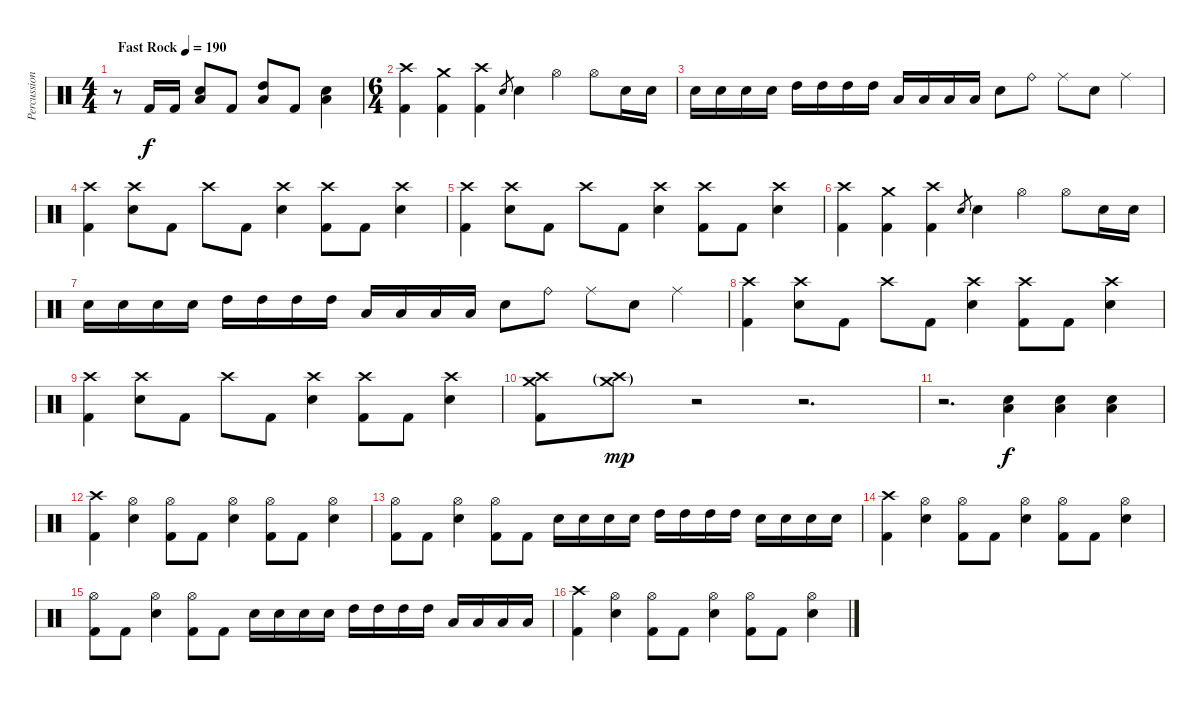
\track ("Percussion" "Percussion") {instrument percussion}
\staff {score}
\articulation defaults
\ts (4 4)
\tempo (190 "Fast Rock")
\clef neutral
\ks c
r.8{dy f} "Kick (hit) 2".16 "Kick (hit) 2".16 ("Low Tom (hit)" "Electric Snare (hit)").8 "Kick (hit) 2".8 ("High Tom (hit)" "Low Tom (hit)").8 "Kick (hit) 2".8 ("Low Tom (hit)" "Electric Snare (hit)").4 |
\ts (6 4)
("Crash high (hit)" "Kick (hit) 2").4 ("Crash medium (hit)" "Kick (hit) 2").4 ("Crash high (hit)" "Kick (hit) 2").4 "Electric Snare (hit)".8{gr} "Electric Snare (hit)".4 "Hi-Hat (open)".4 "Hi-Hat (open)".8 "Electric Snare (hit)".16 "Electric Snare (hit)".16 |
"Electric Snare (hit)".16 "Electric Snare (hit)".16 "Electric Snare (hit)".16 "Electric Snare (hit)".16 "High Tom (hit)".16 "High Tom (hit)".16 "High Tom (hit)".16 "High Tom (hit)".16 "Low Tom (hit)".16 "Low Tom (hit)".16 "Low Tom (hit)".16 "Low Tom (hit)".16 "Electric Snare (hit)".8 "Ride (bell)".8 "Ride (middle)".8 "Electric Snare (hit)".8 "Ride (middle)".4 |
("Crash high (hit)" "Kick (hit) 2").4 ("Crash high (hit)" "Electric Snare (hit)").8 "Kick (hit) 2".8 "Crash high (hit)".8 "Kick (hit) 2".8 ("Crash high (hit)" "Electric Snare (hit)").4 ("Crash high (hit)" "Kick (hit) 2").8 "Kick (hit) 2".8 ("Crash high (hit)" "Electric Snare (hit)").4 |
("Crash high (hit)" "Kick (hit) 2").4 ("Crash high (hit)" "Electric Snare (hit)").8 "Kick (hit) 2".8 "Crash high (hit)".8 "Kick (hit) 2".8 ("Crash high (hit)" "Electric Snare (hit)").4 ("Crash high (hit)" "Kick (hit) 2").8 "Kick (hit) 2".8 ("Crash high (hit)" "Electric Snare (hit)").4 |
("Crash high (hit)" "Kick (hit) 2").4 ("Crash medium (hit)" "Kick (hit) 2").4 ("Crash high (hit)" "Kick (hit) 2").4 "Electric Snare (hit)".8{gr} "Electric Snare (hit)".4 "Hi-Hat (open)".4 "Hi-Hat (open)".8 "Electric Snare (hit)".16 "Electric Snare (hit)".16 |
"Electric Snare (hit)".16 "Electric Snare (hit)".16 "Electric Snare (hit)".16 "Electric Snare (hit)".16 "High Tom (hit)".16 "High Tom (hit)".16 "High Tom (hit)".16 "High Tom (hit)".16 "Low Tom (hit)".16 "Low Tom (hit)".16 "Low Tom (hit)".16 "Low Tom (hit)".16 "Electric Snare (hit)".8 "Ride (bell)".8 "Ride (middle)".8 "Electric Snare (hit)".8 "Ride (middle)".4 |
("Crash high (hit)" "Kick (hit) 2").4 ("Crash high (hit)" "Electric Snare (hit)").8 "Kick (hit) 2".8 "Crash high (hit)".8 "Kick (hit) 2".8 ("Crash high (hit)" "Electric Snare (hit)").4 ("Crash high (hit)" "Kick (hit) 2").8 "Kick (hit) 2".8 ("Crash high (hit)" "Electric Snare (hit)").4 |
("Crash high (hit)" "Kick (hit) 2").4 ("Crash high (hit)" "Electric Snare (hit)").8 "Kick (hit) 2".8 "Crash high (hit)".8 "Kick (hit) 2".8 ("Crash high (hit)" "Electric Snare (hit)").4 ("Crash high (hit)" "Kick (hit) 2").8 "Kick (hit) 2".8 ("Crash high (hit)" "Electric Snare (hit)").4 |
("Crash medium (hit)" "Crash high (hit)" "Kick (hit) 2").8 ("Crash medium (hit)"{g} "Crash high (hit)"{g}).8{dy mp} r.2 r.2{d} |
r.2{d} ("Low Tom (hit)" "Electric Snare (hit)").4{dy f} ("Low Tom (hit)" "Electric Snare (hit)").4 ("Low Tom (hit)" "Electric Snare (hit)").4 |
("Crash high (hit)" "Kick (hit) 2").4 ("Hi-Hat (open)" "Electric Snare (hit)").4 ("Hi-Hat (open)" "Kick (hit) 2").8 "Kick (hit) 2".8 ("Hi-Hat (open)" "Electric Snare (hit)").4 ("Hi-Hat (open)" "Kick (hit) 2").8 "Kick (hit) 2".8 ("Hi-Hat (open)" "Electric Snare (hit)").4 |
("Hi-Hat (open)" "Kick (hit) 2").8 "Kick (hit) 2".8 ("Hi-Hat (open)" "Electric Snare (hit)").4 ("Hi-Hat (open)" "Kick (hit) 2").8 "Kick (hit) 2".8 "Electric Snare (hit)".16 "Electric Snare (hit)".16 "Electric Snare (hit)".16 "Electric Snare (hit)".16 "High Tom (hit)".16 "High Tom (hit)".16 "High Tom (hit)".16 "High Tom (hit)".16 "Electric Snare (hit)".16 "Electric Snare (hit)".16 "Electric Snare (hit)".16 "Electric Snare (hit)".16 |
("Crash high (hit)" "Kick (hit) 2").4 ("Hi-Hat (open)" "Electric Snare (hit)").4 ("Hi-Hat (open)" "Kick (hit) 2").8 "Kick (hit) 2".8 ("Hi-Hat (open)" "Electric Snare (hit)").4 ("Hi-Hat (open)" "Kick (hit) 2").8 "Kick (hit) 2".8 ("Hi-Hat (open)" "Electric Snare (hit)").4 |
("Hi-Hat (open)" "Kick (hit) 2").8 "Kick (hit) 2".8 ("Hi-Hat (open)" "Electric Snare (hit)").4 ("Hi-Hat (open)" "Kick (hit) 2").8 "Kick (hit) 2".8 "Electric Snare (hit)".16 "Electric Snare (hit)".16 "Electric Snare (hit)".16 "Electric Snare (hit)".16 "High Tom (hit)".16 "High Tom (hit)".16 "High Tom (hit)".16 "High Tom (hit)".16 "Low Tom (hit)".16 "Low Tom (hit)".16 "Low Tom (hit)".16 "Low Tom (hit)".16 |
("Crash high (hit)" "Kick (hit) 2").4 ("Hi-Hat (open)" "Electric Snare (hit)").4 ("Hi-Hat (open)" "Kick (hit) 2").8 "Kick (hit) 2".8 ("Hi-Hat (open)" "Electric Snare (hit)").4 ("Hi-Hat (open)" "Kick (hit) 2").8 "Kick (hit) 2".8 ("Hi-Hat (open)" "Electric Snare (hit)").4
